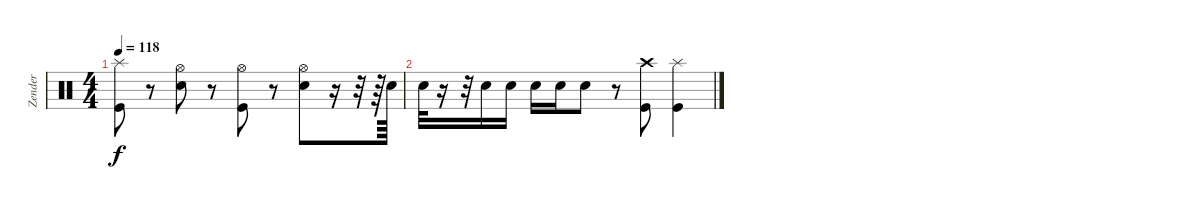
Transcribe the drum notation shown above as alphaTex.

\track ("Zender" "Zender") {instrument percussion}
\staff {score}
\articulation defaults
\ts (4 4)
\tempo 118
\clef neutral
\ks c
("Splash (hit)" "Kick (hit)").8{dy f} r.8 ("Hi-Hat (open)" "Snare (hit) 2").8 r.8 ("Hi-Hat (open)" "Kick (hit)").8 r.8 ("Hi-Hat (open)" "Snare (hit) 2").8 r.16 r.32 r.64 "Snare (hit) 2".64 |
"Snare (hit) 2".32 r.16 r.32 "Snare (hit) 2".16 "Snare (hit) 2".16 "Snare (hit) 2".16 "Snare (hit) 2".16 "Snare (hit) 2".8 r.8 ("Crash high (hit)" "Kick (hit)").8 ("Splash (hit)" "Kick (hit)").4
